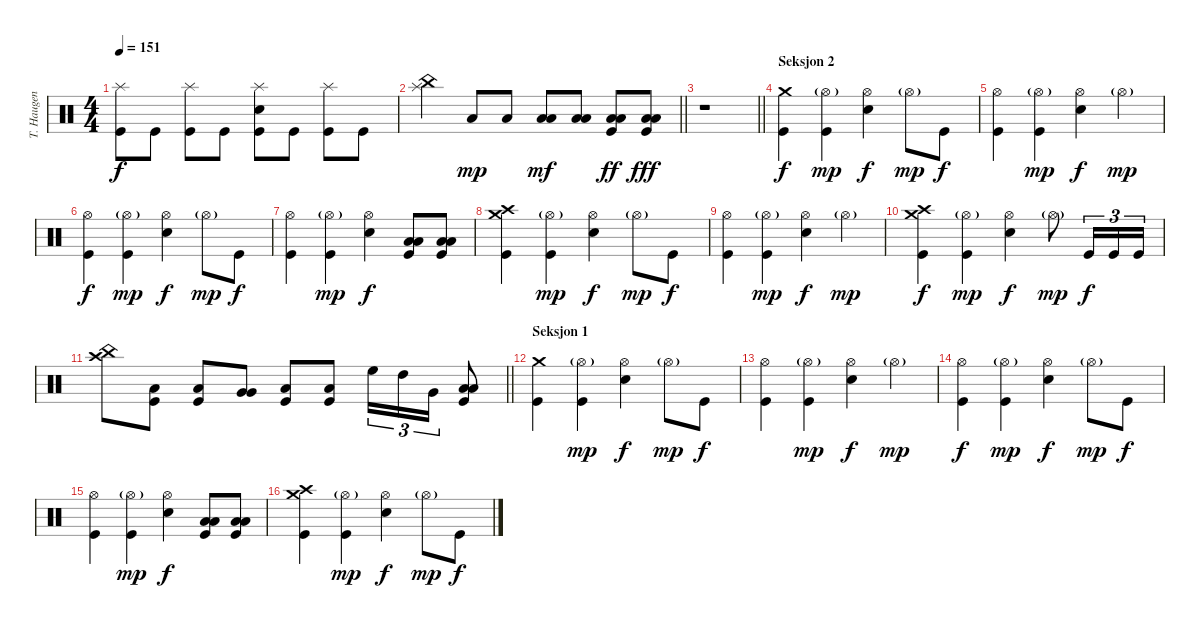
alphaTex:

\track ("T. Haugen" "T. Haugen") {instrument percussion}
\staff {score}
\articulation defaults
\ts (4 4)
\tempo 151
\clef neutral
\ks c
("Splash (hit)" "Kick (hit)").8{dy f} "Kick (hit)".8 ("Splash (hit)" "Kick (hit)").8 "Kick (hit)".8 ("Splash (hit)" "Electric Snare (hit)" "Kick (hit)").8 "Kick (hit)".8 ("Splash (hit)" "Kick (hit)").8 "Kick (hit)".8 |
\barLineRight lightlight
("China (hit)" "Splash (hit)").4 "Low Floor Tom (hit)".8{dy mp} "Low Floor Tom (hit)".8 ("Low Floor Tom (hit)" "Low Floor Tom (hit)").8{dy mf} ("Low Floor Tom (hit)" "Low Floor Tom (hit)").8 ("Low Floor Tom (hit)" "Low Floor Tom (hit)" "Kick (hit)").8{dy ff} ("Low Floor Tom (hit)" "Low Floor Tom (hit)" "Kick (hit)").8{dy fff} |
\section ("" "")
\barLineRight lightlight
r.1 |
\section ("" "Seksjon 2")
("Crash medium (hit)" "Kick (hit)").4{dy f} ("Hi-Hat (open)"{g} "Kick (hit)").4{dy mp} ("Hi-Hat (open)" "Electric Snare (hit)").4{dy f} "Hi-Hat (open)"{g}.8{dy mp} "Kick (hit)".8{dy f} |
("Hi-Hat (open)" "Kick (hit)").4 ("Hi-Hat (open)"{g} "Kick (hit)").4{dy mp} ("Hi-Hat (open)" "Electric Snare (hit)").4{dy f} "Hi-Hat (open)"{g}.4{dy mp} |
("Hi-Hat (open)" "Kick (hit)").4{dy f} ("Hi-Hat (open)"{g} "Kick (hit)").4{dy mp} ("Hi-Hat (open)" "Electric Snare (hit)").4{dy f} "Hi-Hat (open)"{g}.8{dy mp} "Kick (hit)".8{dy f} |
("Hi-Hat (open)" "Kick (hit)").4 ("Hi-Hat (open)"{g} "Kick (hit)").4{dy mp} ("Hi-Hat (open)" "Electric Snare (hit)").4{dy f} ("Low Floor Tom (hit)" "Low Floor Tom (hit)" "Kick (hit)").8 ("Low Floor Tom (hit)" "Low Floor Tom (hit)" "Kick (hit)").8 |
("Crash medium (hit)" "Crash high (hit)" "Kick (hit)").4 ("Hi-Hat (open)"{g} "Kick (hit)").4{dy mp} ("Hi-Hat (open)" "Electric Snare (hit)").4{dy f} "Hi-Hat (open)"{g}.8{dy mp} "Kick (hit)".8{dy f} |
("Hi-Hat (open)" "Kick (hit)").4 ("Hi-Hat (open)"{g} "Kick (hit)").4{dy mp} ("Hi-Hat (open)" "Electric Snare (hit)").4{dy f} "Hi-Hat (open)"{g}.4{dy mp} |
("Crash medium (hit)" "Crash high (hit)" "Kick (hit)").4{dy f} ("Hi-Hat (open)"{g} "Kick (hit)").4{dy mp} ("Hi-Hat (open)" "Electric Snare (hit)").4{dy f} "Hi-Hat (open)"{g}.8{dy mp} "Kick (hit)".16{tu (3 2) dy f} "Kick (hit)".16{tu (3 2)} "Kick (hit)".16{tu (3 2)} |
\barLineRight lightlight
("China (hit)" "Crash high (hit)").8 ("Low Floor Tom (hit)" "Kick (hit)").8 ("Low Floor Tom (hit)" "Kick (hit)").8 ("Very Low Tom (hit)" "Very Low Tom (hit)").8 ("Low Floor Tom (hit)" "Kick (hit)").8 ("Low Floor Tom (hit)" "Kick (hit)").8 "High Floor Tom (hit)".16{tu (3 2)} "High Tom (hit)".16{tu (3 2)} "Very Low Tom (hit)".16{tu (3 2)} ("Low Floor Tom (hit)" "Low Floor Tom (hit)" "Kick (hit)").8 |
\section ("" "Seksjon 1")
("Crash medium (hit)" "Kick (hit)").4 ("Hi-Hat (open)"{g} "Kick (hit)").4{dy mp} ("Hi-Hat (open)" "Electric Snare (hit)").4{dy f} "Hi-Hat (open)"{g}.8{dy mp} "Kick (hit)".8{dy f} |
("Hi-Hat (open)" "Kick (hit)").4 ("Hi-Hat (open)"{g} "Kick (hit)").4{dy mp} ("Hi-Hat (open)" "Electric Snare (hit)").4{dy f} "Hi-Hat (open)"{g}.4{dy mp} |
("Hi-Hat (open)" "Kick (hit)").4{dy f} ("Hi-Hat (open)"{g} "Kick (hit)").4{dy mp} ("Hi-Hat (open)" "Electric Snare (hit)").4{dy f} "Hi-Hat (open)"{g}.8{dy mp} "Kick (hit)".8{dy f} |
("Hi-Hat (open)" "Kick (hit)").4 ("Hi-Hat (open)"{g} "Kick (hit)").4{dy mp} ("Hi-Hat (open)" "Electric Snare (hit)").4{dy f} ("Low Floor Tom (hit)" "Low Floor Tom (hit)" "Kick (hit)").8 ("Low Floor Tom (hit)" "Low Floor Tom (hit)" "Kick (hit)").8 |
("Crash medium (hit)" "Crash high (hit)" "Kick (hit)").4 ("Hi-Hat (open)"{g} "Kick (hit)").4{dy mp} ("Hi-Hat (open)" "Electric Snare (hit)").4{dy f} "Hi-Hat (open)"{g}.8{dy mp} "Kick (hit)".8{dy f}
